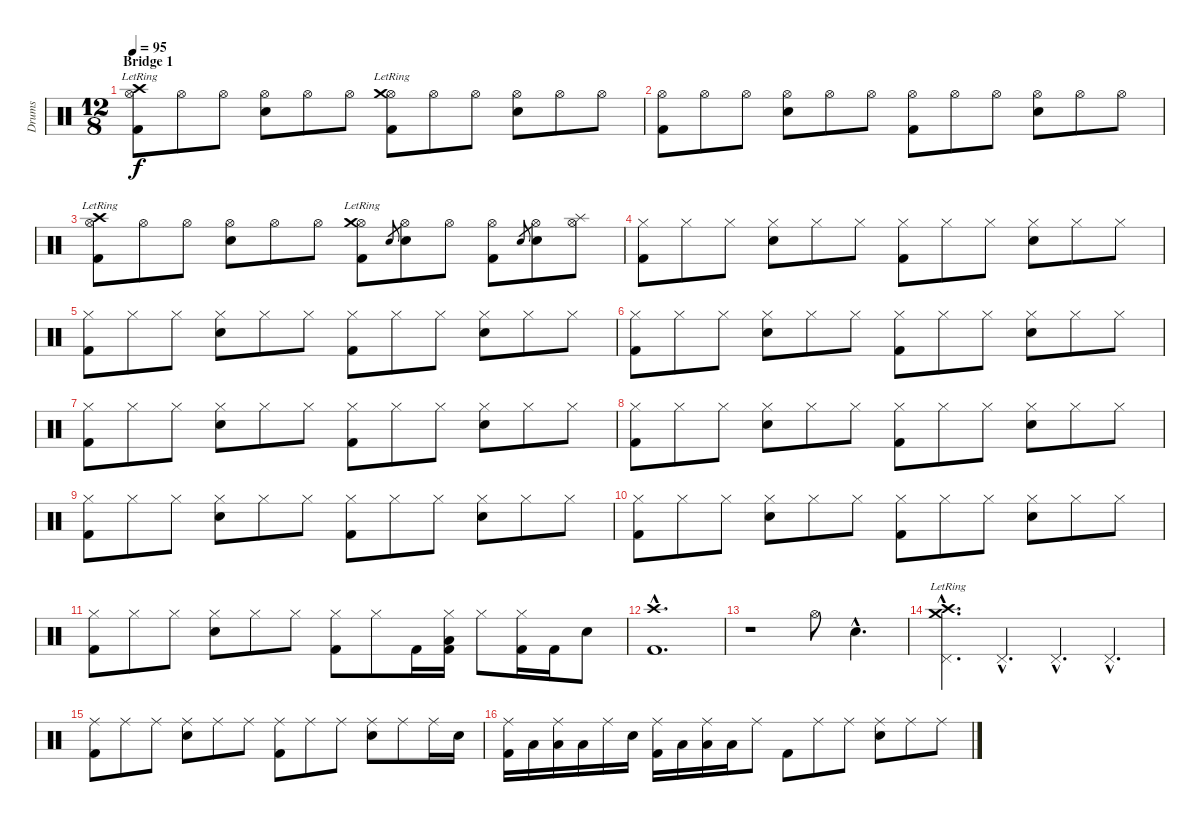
\track ("Drums" "Drums") {instrument percussion}
\staff {score}
\articulation defaults
\ts (12 8)
\section ("" "Bridge 1")
\tempo 95
\clef neutral
\ks c
("Kick (hit) 2" "Hi-Hat (open)" "Crash high (hit)"{lr}).8{dy f} "Hi-Hat (open)".8 "Hi-Hat (open)".8 ("Snare (hit) 2" "Hi-Hat (open)").8 "Hi-Hat (open)".8 "Hi-Hat (open)".8 ("Kick (hit) 2" "Hi-Hat (open)" "Crash medium (hit)"{lr}).8 "Hi-Hat (open)".8 "Hi-Hat (open)".8 ("Snare (hit) 2" "Hi-Hat (open)").8 "Hi-Hat (open)".8 "Hi-Hat (open)".8 |
("Kick (hit) 2" "Hi-Hat (open)").8 "Hi-Hat (open)".8 "Hi-Hat (open)".8 ("Snare (hit) 2" "Hi-Hat (open)").8 "Hi-Hat (open)".8 "Hi-Hat (open)".8 ("Kick (hit) 2" "Hi-Hat (open)").8 "Hi-Hat (open)".8 "Hi-Hat (open)".8 ("Snare (hit) 2" "Hi-Hat (open)").8 "Hi-Hat (open)".8 "Hi-Hat (open)".8 |
("Kick (hit) 2" "Hi-Hat (open)" "Crash high (hit)"{lr}).8 "Hi-Hat (open)".8 "Hi-Hat (open)".8 ("Snare (hit) 2" "Hi-Hat (open)").8 "Hi-Hat (open)".8 "Hi-Hat (open)".8 ("Kick (hit) 2" "Hi-Hat (open)" "Crash medium (hit)"{lr}).8 "Snare (hit) 2"{sl}.8{gr} ("Snare (hit) 2" "Hi-Hat (open)").8 "Hi-Hat (open)".8 ("Kick (hit) 2" "Hi-Hat (open)").8 "Snare (hit) 2"{sl}.8{gr} ("Snare (hit) 2" "Hi-Hat (open)").8 ("Hi-Hat (open)" "Splash (hit)").8 |
("Kick (hit) 2" "Hi-Hat (closed)").8 "Hi-Hat (closed)".8 "Hi-Hat (closed)".8 ("Snare (hit) 2" "Hi-Hat (closed)").8 "Hi-Hat (closed)".8 "Hi-Hat (closed)".8 ("Kick (hit) 2" "Hi-Hat (closed)").8 "Hi-Hat (closed)".8 "Hi-Hat (closed)".8 ("Snare (hit) 2" "Hi-Hat (closed)").8 "Hi-Hat (closed)".8 "Hi-Hat (closed)".8 |
("Kick (hit) 2" "Hi-Hat (closed)").8 "Hi-Hat (closed)".8 "Hi-Hat (closed)".8 ("Snare (hit) 2" "Hi-Hat (closed)").8 "Hi-Hat (closed)".8 "Hi-Hat (closed)".8 ("Kick (hit) 2" "Hi-Hat (closed)").8 "Hi-Hat (closed)".8 "Hi-Hat (closed)".8 ("Snare (hit) 2" "Hi-Hat (closed)").8 "Hi-Hat (closed)".8 "Hi-Hat (closed)".8 |
("Kick (hit) 2" "Hi-Hat (closed)").8 "Hi-Hat (closed)".8 "Hi-Hat (closed)".8 ("Snare (hit) 2" "Hi-Hat (closed)").8 "Hi-Hat (closed)".8 "Hi-Hat (closed)".8 ("Kick (hit) 2" "Hi-Hat (closed)").8 "Hi-Hat (closed)".8 "Hi-Hat (closed)".8 ("Snare (hit) 2" "Hi-Hat (closed)").8 "Hi-Hat (closed)".8 "Hi-Hat (closed)".8 |
("Kick (hit) 2" "Hi-Hat (closed)").8 "Hi-Hat (closed)".8 "Hi-Hat (closed)".8 ("Snare (hit) 2" "Hi-Hat (closed)").8 "Hi-Hat (closed)".8 "Hi-Hat (closed)".8 ("Kick (hit) 2" "Hi-Hat (closed)").8 "Hi-Hat (closed)".8 "Hi-Hat (closed)".8 ("Snare (hit) 2" "Hi-Hat (closed)").8 "Hi-Hat (closed)".8 "Hi-Hat (closed)".8 |
("Kick (hit) 2" "Hi-Hat (closed)").8 "Hi-Hat (closed)".8 "Hi-Hat (closed)".8 ("Snare (hit) 2" "Hi-Hat (closed)").8 "Hi-Hat (closed)".8 "Hi-Hat (closed)".8 ("Kick (hit) 2" "Hi-Hat (closed)").8 "Hi-Hat (closed)".8 "Hi-Hat (closed)".8 ("Snare (hit) 2" "Hi-Hat (closed)").8 "Hi-Hat (closed)".8 "Hi-Hat (closed)".8 |
("Kick (hit) 2" "Hi-Hat (closed)").8 "Hi-Hat (closed)".8 "Hi-Hat (closed)".8 ("Snare (hit) 2" "Hi-Hat (closed)").8 "Hi-Hat (closed)".8 "Hi-Hat (closed)".8 ("Kick (hit) 2" "Hi-Hat (closed)").8 "Hi-Hat (closed)".8 "Hi-Hat (closed)".8 ("Snare (hit) 2" "Hi-Hat (closed)").8 "Hi-Hat (closed)".8 "Hi-Hat (closed)".8 |
("Kick (hit) 2" "Hi-Hat (closed)").8 "Hi-Hat (closed)".8 "Hi-Hat (closed)".8 ("Snare (hit) 2" "Hi-Hat (closed)").8 "Hi-Hat (closed)".8 "Hi-Hat (closed)".8 ("Kick (hit) 2" "Hi-Hat (closed)").8 "Hi-Hat (closed)".8 "Hi-Hat (closed)".8 ("Snare (hit) 2" "Hi-Hat (closed)").8 "Hi-Hat (closed)".8 "Hi-Hat (closed)".8 |
("Kick (hit) 2" "Hi-Hat (closed)").8 "Hi-Hat (closed)".8 "Hi-Hat (closed)".8 ("Snare (hit) 2" "Hi-Hat (closed)").8 "Hi-Hat (closed)".8 "Hi-Hat (closed)".8 ("Kick (hit) 2" "Hi-Hat (closed)").8 "Hi-Hat (closed)".8 "Kick (hit) 2".16 ("Kick (hit) 2" "Low Tom (hit)" "Hi-Hat (closed)").16 "Hi-Hat (closed)".8 ("Kick (hit) 2" "Hi-Hat (closed)").16 "Kick (hit) 2".16 "Snare (hit) 2".8 |
("Kick (hit) 2"{hac} "Crash high (hit)"{hac}).1{d} |
r.1 "Hi-Hat (open)".8 "Snare (hit) 2"{hac}.4{d} |
("Pedal Hi-Hat (hit)"{hac} "Crash medium (hit)"{hac lr} "Crash high (hit)"{hac lr}).4{d} "Pedal Hi-Hat (hit)"{hac}.4{d} "Pedal Hi-Hat (hit)"{hac}.4{d} "Pedal Hi-Hat (hit)"{hac}.4{d} |
("Kick (hit) 2" "Ride (middle)").8 "Ride (middle)".8 "Ride (middle)".8 ("Snare (hit) 2" "Ride (middle)").8 "Ride (middle)".8 "Ride (middle)".8 ("Kick (hit) 2" "Ride (middle)").8 "Ride (middle)".8 "Ride (middle)".8 ("Snare (hit) 2" "Ride (middle)").8 "Ride (middle)".8 "Ride (middle)".16 "Snare (hit) 2".16 |
("Kick (hit) 2" "Ride (middle)").16 "Low Tom (hit)".16 ("Ride (middle)" "Low Tom (hit)").16 "Low Tom (hit)".16 "Ride (middle)".16 "Snare (hit) 2".16 ("Kick (hit) 2" "Ride (middle)").16 "Low Tom (hit)".16 ("Ride (middle)" "Low Tom (hit)").16 "Low Tom (hit)".16 "Ride (middle)".8 "Kick (hit) 2".8 "Ride (middle)".8 "Ride (middle)".8 ("Snare (hit) 2" "Ride (middle)").8 "Ride (middle)".8 "Ride (middle)".8
